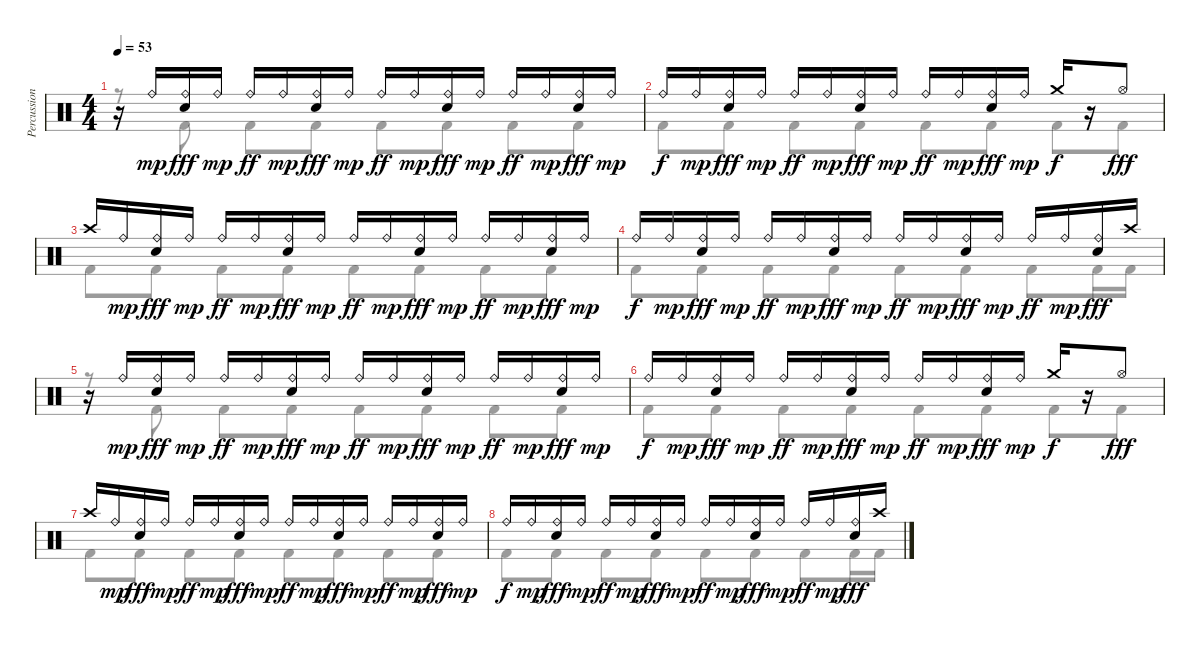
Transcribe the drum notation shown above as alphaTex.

\track ("Percussion" "Percussion") {instrument percussion}
\staff {score}
\articulation defaults
\voice
\ts (4 4)
\tempo 53
\clef neutral
\ks c
r.16{dy fff} "Ride (bell)".16{dy mp} ("Ride (bell)" "Electric Snare (hit)").16{dy fff} "Ride (bell)".16{dy mp} "Ride (bell)".16{dy ff} "Ride (bell)".16{dy mp} ("Ride (bell)" "Electric Snare (hit)").16{dy fff} "Ride (bell)".16{dy mp} "Ride (bell)".16{dy ff} "Ride (bell)".16{dy mp} ("Ride (bell)" "Electric Snare (hit)").16{dy fff} "Ride (bell)".16{dy mp} "Ride (bell)".16{dy ff} "Ride (bell)".16{dy mp} ("Ride (bell)" "Electric Snare (hit)").16{dy fff} "Ride (bell)".16{dy mp} |
"Ride (bell)".16{dy f} "Ride (bell)".16{dy mp} ("Ride (bell)" "Electric Snare (hit)").16{dy fff} "Ride (bell)".16{dy mp} "Ride (bell)".16{dy ff} "Ride (bell)".16{dy mp} ("Ride (bell)" "Electric Snare (hit)").16{dy fff} "Ride (bell)".16{dy mp} "Ride (bell)".16{dy ff} "Ride (bell)".16{dy mp} ("Ride (bell)" "Electric Snare (hit)").16{dy fff} "Ride (bell)".16{dy mp} "Crash medium (hit)".16{dy f} r.16 "Hi-Hat (open)".8{dy fff} |
"Crash high (hit)".16 "Ride (bell)".16{dy mp} ("Ride (bell)" "Electric Snare (hit)").16{dy fff} "Ride (bell)".16{dy mp} "Ride (bell)".16{dy ff} "Ride (bell)".16{dy mp} ("Ride (bell)" "Electric Snare (hit)").16{dy fff} "Ride (bell)".16{dy mp} "Ride (bell)".16{dy ff} "Ride (bell)".16{dy mp} ("Ride (bell)" "Electric Snare (hit)").16{dy fff} "Ride (bell)".16{dy mp} "Ride (bell)".16{dy ff} "Ride (bell)".16{dy mp} ("Ride (bell)" "Electric Snare (hit)").16{dy fff} "Ride (bell)".16{dy mp} |
"Ride (bell)".16{dy f} "Ride (bell)".16{dy mp} ("Ride (bell)" "Electric Snare (hit)").16{dy fff} "Ride (bell)".16{dy mp} "Ride (bell)".16{dy ff} "Ride (bell)".16{dy mp} ("Ride (bell)" "Electric Snare (hit)").16{dy fff} "Ride (bell)".16{dy mp} "Ride (bell)".16{dy ff} "Ride (bell)".16{dy mp} ("Ride (bell)" "Electric Snare (hit)").16{dy fff} "Ride (bell)".16{dy mp} "Ride (bell)".16{dy ff} "Ride (bell)".16{dy mp} ("Ride (bell)" "Electric Snare (hit)").16{dy fff} "Crash high (hit)".16 |
r.16{volume 0} "Ride (bell)".16{dy mp} ("Ride (bell)" "Electric Snare (hit)").16{dy fff} "Ride (bell)".16{dy mp} "Ride (bell)".16{dy ff} "Ride (bell)".16{dy mp} ("Ride (bell)" "Electric Snare (hit)").16{dy fff} "Ride (bell)".16{dy mp} "Ride (bell)".16{dy ff} "Ride (bell)".16{dy mp} ("Ride (bell)" "Electric Snare (hit)").16{dy fff} "Ride (bell)".16{dy mp} "Ride (bell)".16{dy ff} "Ride (bell)".16{dy mp} ("Ride (bell)" "Electric Snare (hit)").16{dy fff} "Ride (bell)".16{dy mp} |
"Ride (bell)".16{dy f} "Ride (bell)".16{dy mp} ("Ride (bell)" "Electric Snare (hit)").16{dy fff} "Ride (bell)".16{dy mp} "Ride (bell)".16{dy ff} "Ride (bell)".16{dy mp} ("Ride (bell)" "Electric Snare (hit)").16{dy fff} "Ride (bell)".16{dy mp} "Ride (bell)".16{dy ff} "Ride (bell)".16{dy mp} ("Ride (bell)" "Electric Snare (hit)").16{dy fff} "Ride (bell)".16{dy mp} "Crash medium (hit)".16{dy f} r.16 "Hi-Hat (open)".8{dy fff} |
"Crash high (hit)".16 "Ride (bell)".16{dy mp} ("Ride (bell)" "Electric Snare (hit)").16{dy fff} "Ride (bell)".16{dy mp} "Ride (bell)".16{dy ff} "Ride (bell)".16{dy mp} ("Ride (bell)" "Electric Snare (hit)").16{dy fff} "Ride (bell)".16{dy mp} "Ride (bell)".16{dy ff} "Ride (bell)".16{dy mp} ("Ride (bell)" "Electric Snare (hit)").16{dy fff} "Ride (bell)".16{dy mp} "Ride (bell)".16{dy ff} "Ride (bell)".16{dy mp} ("Ride (bell)" "Electric Snare (hit)").16{dy fff} "Ride (bell)".16{dy mp} |
"Ride (bell)".16{dy f} "Ride (bell)".16{dy mp} ("Ride (bell)" "Electric Snare (hit)").16{dy fff} "Ride (bell)".16{dy mp} "Ride (bell)".16{dy ff} "Ride (bell)".16{dy mp} ("Ride (bell)" "Electric Snare (hit)").16{dy fff} "Ride (bell)".16{dy mp} "Ride (bell)".16{dy ff} "Ride (bell)".16{dy mp} ("Ride (bell)" "Electric Snare (hit)").16{dy fff} "Ride (bell)".16{dy mp} "Ride (bell)".16{dy ff} "Ride (bell)".16{dy mp} ("Ride (bell)" "Electric Snare (hit)").16{dy fff} "Crash high (hit)".16
\voice
\clef neutral
\ottava regular
\simile none
\ks c
r.8{dy fff} "Kick (hit) 2".8 "Kick (hit) 2".8 "Kick (hit) 2".8 "Kick (hit) 2".8 "Kick (hit) 2".8 "Kick (hit) 2".8 "Kick (hit) 2".8 |
"Kick (hit) 2".8 "Kick (hit) 2".8 "Kick (hit) 2".8 "Kick (hit) 2".8 "Kick (hit) 2".8 "Kick (hit) 2".8 "Kick (hit) 2".8 "Kick (hit) 2".8 |
"Kick (hit) 2".8 "Kick (hit) 2".8 "Kick (hit) 2".8 "Kick (hit) 2".8 "Kick (hit) 2".8 "Kick (hit) 2".8 "Kick (hit) 2".8 "Kick (hit) 2".8 |
"Kick (hit) 2".8 "Kick (hit) 2".8 "Kick (hit) 2".8 "Kick (hit) 2".8 "Kick (hit) 2".8 "Kick (hit) 2".8 "Kick (hit) 2".8 "Kick (hit) 2".16 "Kick (hit) 2".16 |
r.8 "Kick (hit) 2".8 "Kick (hit) 2".8 "Kick (hit) 2".8 "Kick (hit) 2".8 "Kick (hit) 2".8 "Kick (hit) 2".8 "Kick (hit) 2".8 |
"Kick (hit) 2".8 "Kick (hit) 2".8 "Kick (hit) 2".8 "Kick (hit) 2".8 "Kick (hit) 2".8 "Kick (hit) 2".8 "Kick (hit) 2".8 "Kick (hit) 2".8 |
"Kick (hit) 2".8 "Kick (hit) 2".8 "Kick (hit) 2".8 "Kick (hit) 2".8 "Kick (hit) 2".8 "Kick (hit) 2".8 "Kick (hit) 2".8 "Kick (hit) 2".8 |
"Kick (hit) 2".8 "Kick (hit) 2".8 "Kick (hit) 2".8 "Kick (hit) 2".8 "Kick (hit) 2".8 "Kick (hit) 2".8 "Kick (hit) 2".8 "Kick (hit) 2".16 "Kick (hit) 2".16
